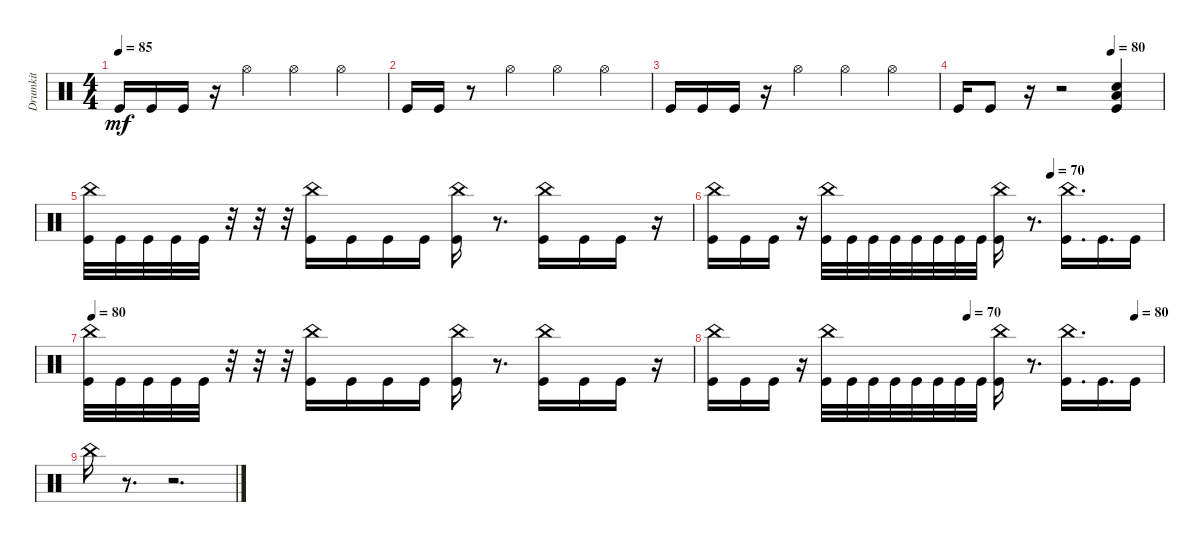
\track ("Drumkit" "Drumkit") {instrument percussion}
\staff {score}
\articulation defaults
\ts (4 4)
\tempo 85
\clef neutral
\ks c "Kick (hit)".16{dy mf} "Kick (hit)".16 "Kick (hit)".16
r.16 "Hi-Hat (open)".4 "Hi-Hat (open)".4 "Hi-Hat (open)".4 |
"Kick (hit)".16 "Kick (hit)".16 r.8 "Hi-Hat (open)".4 "Hi-Hat (open)".4 "Hi-Hat (open)".4 |
"Kick (hit)".16 "Kick (hit)".16 "Kick (hit)".16 r.16 "Hi-Hat (open)".4 "Hi-Hat (open)".4 "Hi-Hat (open)".4 |
\tempo (80 0.75)
"Kick (hit)".16 "Kick (hit)".8 r.16 r.2 ("Kick (hit)" "Snare (hit) 2" "Low Floor Tom (hit)").4 |
("Kick (hit)" "China (hit)").32 "Kick (hit)".32 "Kick (hit)".32 "Kick (hit)".32 "Kick (hit)".32 r.32 r.32 r.32 ("Kick (hit)" "China (hit)").16 "Kick (hit)".16 "Kick (hit)".16 "Kick (hit)".16 ("Kick (hit)" "China (hit)").16 r.8{d} ("Kick (hit)" "China (hit)").16 "Kick (hit)".16 "Kick (hit)".16 r.16 |
\tempo (70 0.75)
("Kick (hit)" "China (hit)").16 "Kick (hit)".16 "Kick (hit)".16 r.16 ("Kick (hit)" "China (hit)").32 "Kick (hit)".32 "Kick (hit)".32 "Kick (hit)".32 "Kick (hit)".32 "Kick (hit)".32 "Kick (hit)".32 "Kick (hit)".32 ("Kick (hit)" "China (hit)").16 r.8{d} ("Kick (hit)" "China (hit)").16{d} "Kick (hit)".16{d} "Kick (hit)".16 |
\tempo 80
("Kick (hit)" "China (hit)").32 "Kick (hit)".32 "Kick (hit)".32 "Kick (hit)".32 "Kick (hit)".32 r.32 r.32 r.32 ("Kick (hit)" "China (hit)").16 "Kick (hit)".16 "Kick (hit)".16 "Kick (hit)".16 ("Kick (hit)" "China (hit)").16 r.8{d} ("Kick (hit)" "China (hit)").16 "Kick (hit)".16 "Kick (hit)".16 r.16 |
\tempo (70 0.5625)
\tempo (80 0.9375)
("Kick (hit)" "China (hit)").16 "Kick (hit)".16 "Kick (hit)".16 r.16 ("Kick (hit)" "China (hit)").32 "Kick (hit)".32 "Kick (hit)".32 "Kick (hit)".32 "Kick (hit)".32 "Kick (hit)".32 "Kick (hit)".32 "Kick (hit)".32 ("Kick (hit)" "China (hit)").16 r.8{d} ("Kick (hit)" "China (hit)").16{d} "Kick (hit)".16{d} "Kick (hit)".16 |
"China (hit)".16 r.8{d} r.2{d}
